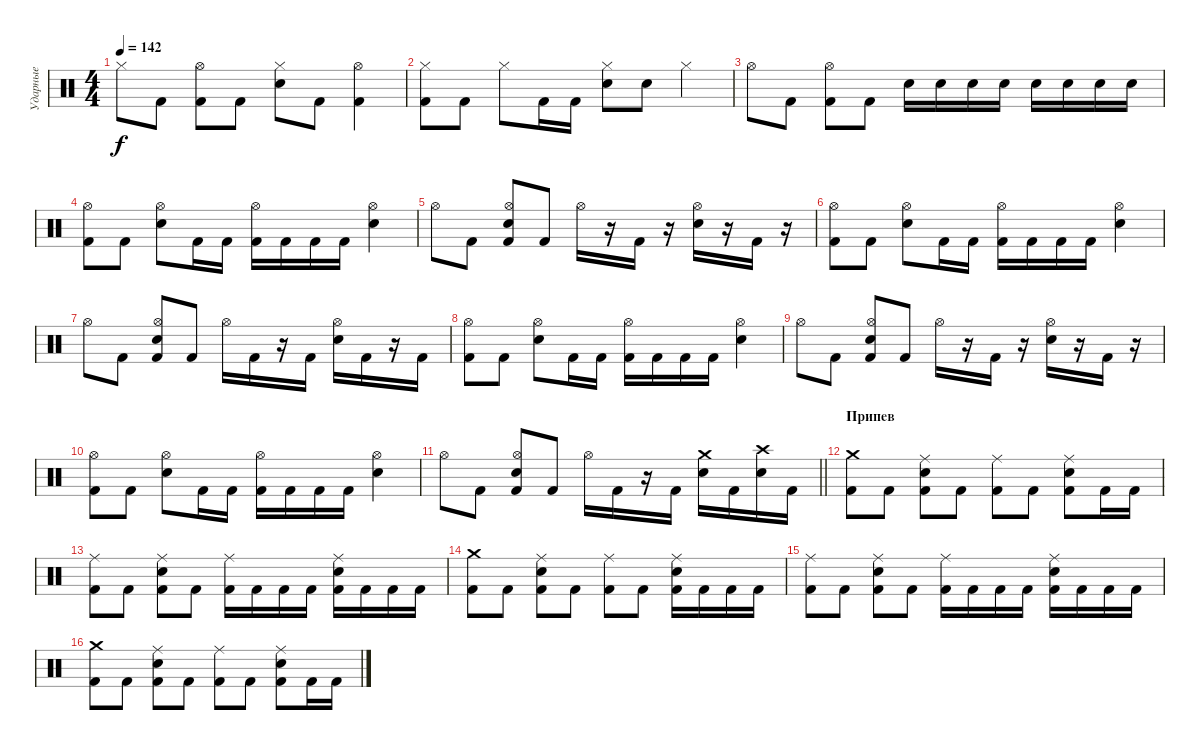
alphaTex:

\track ("Ударные" "Ударные") {instrument percussion}
\staff {score}
\articulation defaults
\ts (4 4)
\tempo 142
\clef neutral
\ks c "Hi-Hat (closed)".8{dy f} "Kick (hit) 2".8
("Kick (hit) 2" "Hi-Hat (open)").8 "Kick (hit) 2".8 ("Snare (hit) 2" "Hi-Hat (closed)").8 "Kick (hit) 2".8 ("Kick (hit) 2" "Hi-Hat (open)").4 |
("Kick (hit) 2" "Hi-Hat (closed)").8 "Kick (hit) 2".8 "Hi-Hat (closed)".8 "Kick (hit) 2".16 "Kick (hit) 2".16 ("Snare (hit) 2" "Hi-Hat (closed)").8 "Snare (hit) 2".8 "Hi-Hat (closed)".4 |
"Hi-Hat (open)".8 "Kick (hit) 2".8 ("Kick (hit) 2" "Hi-Hat (open)").8 "Kick (hit) 2".8 "Snare (hit) 2".16 "Snare (hit) 2".16 "Snare (hit) 2".16 "Snare (hit) 2".16 "Snare (hit) 2".16 "Snare (hit) 2".16 "Snare (hit) 2".16 "Snare (hit) 2".16 |
("Kick (hit) 2" "Hi-Hat (open)").8 "Kick (hit) 2".8 ("Snare (hit) 2" "Hi-Hat (open)").8 "Kick (hit) 2".16 "Kick (hit) 2".16 ("Kick (hit) 2" "Hi-Hat (open)").16 "Kick (hit) 2".16 "Kick (hit) 2".16 "Kick (hit) 2".16 ("Snare (hit) 2" "Hi-Hat (open)").4 |
"Hi-Hat (open)".8 "Kick (hit) 2".8 ("Kick (hit) 2" "Snare (hit) 2" "Hi-Hat (open)").8 "Kick (hit) 2".8 "Hi-Hat (open)".16 r.16 "Kick (hit) 2".16 r.16 ("Snare (hit) 2" "Hi-Hat (open)").16 r.16 "Kick (hit) 2".16 r.16 |
("Kick (hit) 2" "Hi-Hat (open)").8 "Kick (hit) 2".8 ("Snare (hit) 2" "Hi-Hat (open)").8 "Kick (hit) 2".16 "Kick (hit) 2".16 ("Kick (hit) 2" "Hi-Hat (open)").16 "Kick (hit) 2".16 "Kick (hit) 2".16 "Kick (hit) 2".16 ("Snare (hit) 2" "Hi-Hat (open)").4 |
"Hi-Hat (open)".8 "Kick (hit) 2".8 ("Kick (hit) 2" "Snare (hit) 2" "Hi-Hat (open)").8 "Kick (hit) 2".8 "Hi-Hat (open)".16 "Kick (hit) 2".16 r.16 "Kick (hit) 2".16 ("Snare (hit) 2" "Hi-Hat (open)").16 "Kick (hit) 2".16 r.16 "Kick (hit) 2".16 |
("Kick (hit) 2" "Hi-Hat (open)").8 "Kick (hit) 2".8 ("Snare (hit) 2" "Hi-Hat (open)").8 "Kick (hit) 2".16 "Kick (hit) 2".16 ("Kick (hit) 2" "Hi-Hat (open)").16 "Kick (hit) 2".16 "Kick (hit) 2".16 "Kick (hit) 2".16 ("Snare (hit) 2" "Hi-Hat (open)").4 |
"Hi-Hat (open)".8 "Kick (hit) 2".8 ("Kick (hit) 2" "Snare (hit) 2" "Hi-Hat (open)").8 "Kick (hit) 2".8 "Hi-Hat (open)".16 r.16 "Kick (hit) 2".16 r.16 ("Snare (hit) 2" "Hi-Hat (open)").16 r.16 "Kick (hit) 2".16 r.16 |
("Kick (hit) 2" "Hi-Hat (open)").8 "Kick (hit) 2".8 ("Snare (hit) 2" "Hi-Hat (open)").8 "Kick (hit) 2".16 "Kick (hit) 2".16 ("Kick (hit) 2" "Hi-Hat (open)").16 "Kick (hit) 2".16 "Kick (hit) 2".16 "Kick (hit) 2".16 ("Snare (hit) 2" "Hi-Hat (open)").4 |
\barLineRight lightlight "Hi-Hat (open)".8 "Kick (hit) 2".8
("Kick (hit) 2" "Snare (hit) 2" "Hi-Hat (open)").8 "Kick (hit) 2".8 "Hi-Hat (open)".16 "Kick (hit) 2".16 r.16 "Kick (hit) 2".16 ("Snare (hit) 2" "Crash medium (hit)").16 "Kick (hit) 2".16 ("Snare (hit) 2" "Crash high (hit)").16 "Kick (hit) 2".16 |
\section ("" "Припев")
("Kick (hit) 2" "Crash medium (hit)").8 "Kick (hit) 2".8 ("Kick (hit) 2" "Snare (hit) 2" "Ride (middle)").8 "Kick (hit) 2".8 ("Kick (hit) 2" "Ride (middle)").8 "Kick (hit) 2".8 ("Kick (hit) 2" "Snare (hit) 2" "Ride (middle)").8 "Kick (hit) 2".16 "Kick (hit) 2".16 |
("Kick (hit) 2" "Ride (middle)").8 "Kick (hit) 2".8 ("Kick (hit) 2" "Snare (hit) 2" "Ride (middle)").8 "Kick (hit) 2".8 ("Kick (hit) 2" "Ride (middle)").16 "Kick (hit) 2".16 "Kick (hit) 2".16 "Kick (hit) 2".16 ("Kick (hit) 2" "Snare (hit) 2" "Ride (middle)").16 "Kick (hit) 2".16 "Kick (hit) 2".16 "Kick (hit) 2".16 |
("Kick (hit) 2" "Crash medium (hit)").8 "Kick (hit) 2".8 ("Kick (hit) 2" "Snare (hit) 2" "Ride (middle)").8 "Kick (hit) 2".8 ("Kick (hit) 2" "Ride (middle)").8 "Kick (hit) 2".8 ("Kick (hit) 2" "Snare (hit) 2" "Ride (middle)").16 "Kick (hit) 2".16 "Kick (hit) 2".16 "Kick (hit) 2".16 |
("Kick (hit) 2" "Ride (middle)").8 "Kick (hit) 2".8 ("Kick (hit) 2" "Snare (hit) 2" "Ride (middle)").8 "Kick (hit) 2".8 ("Kick (hit) 2" "Ride (middle)").16 "Kick (hit) 2".16 "Kick (hit) 2".16 "Kick (hit) 2".16 ("Kick (hit) 2" "Snare (hit) 2" "Ride (middle)").16 "Kick (hit) 2".16 "Kick (hit) 2".16 "Kick (hit) 2".16 |
("Kick (hit) 2" "Crash medium (hit)").8 "Kick (hit) 2".8 ("Kick (hit) 2" "Snare (hit) 2" "Ride (middle)").8 "Kick (hit) 2".8 ("Kick (hit) 2" "Ride (middle)").8 "Kick (hit) 2".8 ("Kick (hit) 2" "Snare (hit) 2" "Ride (middle)").8 "Kick (hit) 2".16 "Kick (hit) 2".16
